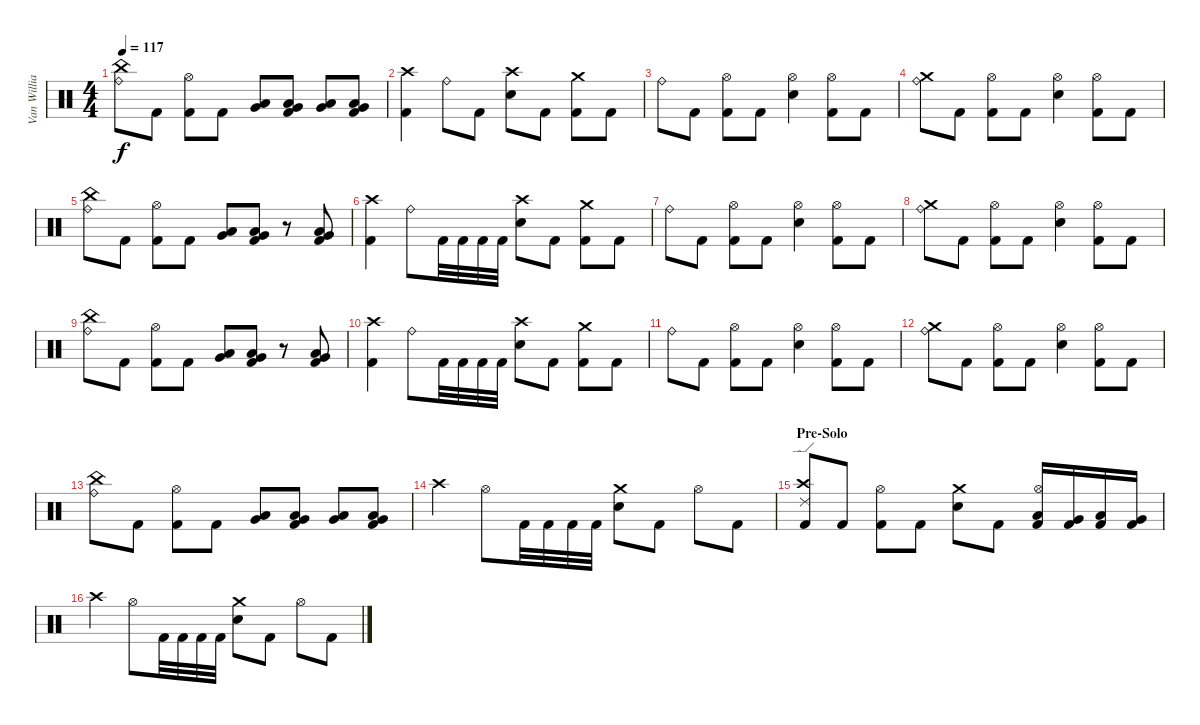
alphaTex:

\track ("Van Williams" "Van Willia") {instrument percussion}
\staff {score}
\articulation defaults
\ts (4 4)
\tempo 117
\clef neutral
\ks c
("Ride (bell)" "China (hit)").8{dy f} "Kick (hit) 2".8 ("Hi-Hat (open)" "Kick (hit) 2").8 "Kick (hit) 2".8 ("Low Floor Tom (hit)" "Very Low Tom (hit)").8 ("Low Floor Tom (hit)" "Very Low Tom (hit)" "Kick (hit) 2").8 ("Low Floor Tom (hit)" "Very Low Tom (hit)").8 ("Low Floor Tom (hit)" "Very Low Tom (hit)" "Kick (hit) 2").8 |
("Crash high (hit)" "Kick (hit) 2").4 "Ride (bell)".8 "Kick (hit) 2".8 ("Crash high (hit)" "Electric Snare (hit)").8 "Kick (hit) 2".8 ("Crash medium (hit)" "Kick (hit) 2").8 "Kick (hit) 2".8 |
"Ride (bell)".8 "Kick (hit) 2".8 ("Hi-Hat (open)" "Kick (hit) 2").8 "Kick (hit) 2".8 ("Hi-Hat (open)" "Electric Snare (hit)").4 ("Hi-Hat (open)" "Kick (hit) 2").8 "Kick (hit) 2".8 |
("Ride (bell)" "Crash medium (hit)").8 "Kick (hit) 2".8 ("Hi-Hat (open)" "Kick (hit) 2").8 "Kick (hit) 2".8 ("Hi-Hat (open)" "Electric Snare (hit)").4 ("Hi-Hat (open)" "Kick (hit) 2").8 "Kick (hit) 2".8 |
("Ride (bell)" "China (hit)").8 "Kick (hit) 2".8 ("Hi-Hat (open)" "Kick (hit) 2").8 "Kick (hit) 2".8 ("Low Floor Tom (hit)" "Very Low Tom (hit)").8 ("Low Floor Tom (hit)" "Very Low Tom (hit)" "Kick (hit) 2").8 r.8 ("Low Floor Tom (hit)" "Very Low Tom (hit)" "Kick (hit) 2").8 |
("Crash high (hit)" "Kick (hit) 2").4 "Ride (bell)".8 "Kick (hit) 2".32 "Kick (hit) 2".32 "Kick (hit) 2".32 "Kick (hit) 2".32 ("Crash high (hit)" "Electric Snare (hit)").8 "Kick (hit) 2".8 ("Crash medium (hit)" "Kick (hit) 2").8 "Kick (hit) 2".8 |
"Ride (bell)".8 "Kick (hit) 2".8 ("Hi-Hat (open)" "Kick (hit) 2").8 "Kick (hit) 2".8 ("Hi-Hat (open)" "Electric Snare (hit)").4 ("Hi-Hat (open)" "Kick (hit) 2").8 "Kick (hit) 2".8 |
("Ride (bell)" "Crash medium (hit)").8 "Kick (hit) 2".8 ("Hi-Hat (open)" "Kick (hit) 2").8 "Kick (hit) 2".8 ("Hi-Hat (open)" "Electric Snare (hit)").4 ("Hi-Hat (open)" "Kick (hit) 2").8 "Kick (hit) 2".8 |
("Ride (bell)" "China (hit)").8 "Kick (hit) 2".8 ("Hi-Hat (open)" "Kick (hit) 2").8 "Kick (hit) 2".8 ("Low Floor Tom (hit)" "Very Low Tom (hit)").8 ("Low Floor Tom (hit)" "Very Low Tom (hit)" "Kick (hit) 2").8 r.8 ("Low Floor Tom (hit)" "Very Low Tom (hit)" "Kick (hit) 2").8 |
("Crash high (hit)" "Kick (hit) 2").4 "Ride (bell)".8 "Kick (hit) 2".32 "Kick (hit) 2".32 "Kick (hit) 2".32 "Kick (hit) 2".32 ("Crash high (hit)" "Electric Snare (hit)").8 "Kick (hit) 2".8 ("Crash medium (hit)" "Kick (hit) 2").8 "Kick (hit) 2".8 |
"Ride (bell)".8 "Kick (hit) 2".8 ("Hi-Hat (open)" "Kick (hit) 2").8 "Kick (hit) 2".8 ("Hi-Hat (open)" "Electric Snare (hit)").4 ("Hi-Hat (open)" "Kick (hit) 2").8 "Kick (hit) 2".8 |
("Ride (bell)" "Crash medium (hit)").8 "Kick (hit) 2".8 ("Hi-Hat (open)" "Kick (hit) 2").8 "Kick (hit) 2".8 ("Hi-Hat (open)" "Electric Snare (hit)").4 ("Hi-Hat (open)" "Kick (hit) 2").8 "Kick (hit) 2".8 |
("Ride (bell)" "China (hit)").8 "Kick (hit) 2".8 ("Hi-Hat (open)" "Kick (hit) 2").8 "Kick (hit) 2".8 ("Low Floor Tom (hit)" "Very Low Tom (hit)").8 ("Low Floor Tom (hit)" "Very Low Tom (hit)" "Kick (hit) 2").8 ("Low Floor Tom (hit)" "Very Low Tom (hit)").8 ("Low Floor Tom (hit)" "Very Low Tom (hit)" "Kick (hit) 2").8 |
"Crash high (hit)".4 "Hi-Hat (open)".8 "Kick (hit) 2".32 "Kick (hit) 2".32 "Kick (hit) 2".32 "Kick (hit) 2".32 ("Crash medium (hit)" "Electric Snare (hit)").8 "Kick (hit) 2".8 "Hi-Hat (open)".8 "Kick (hit) 2".8 |
\section ("" "Pre-Solo")
("Crash high (hit)" "Ride (edge) 2" "Kick (hit) 2").8 "Kick (hit) 2".8 ("Hi-Hat (open)" "Kick (hit) 2").8 "Kick (hit) 2".8 ("Crash medium (hit)" "Electric Snare (hit)").8 "Kick (hit) 2".8 ("Hi-Hat (open)" "Low Floor Tom (hit)" "Kick (hit) 2").16 ("Very Low Tom (hit)" "Kick (hit) 2").16 ("Low Floor Tom (hit)" "Kick (hit) 2").16 ("Very Low Tom (hit)" "Kick (hit) 2").16 |
"Crash high (hit)".4 "Hi-Hat (open)".8 "Kick (hit) 2".32 "Kick (hit) 2".32 "Kick (hit) 2".32 "Kick (hit) 2".32 ("Crash medium (hit)" "Electric Snare (hit)").8 "Kick (hit) 2".8 "Hi-Hat (open)".8 "Kick (hit) 2".8
